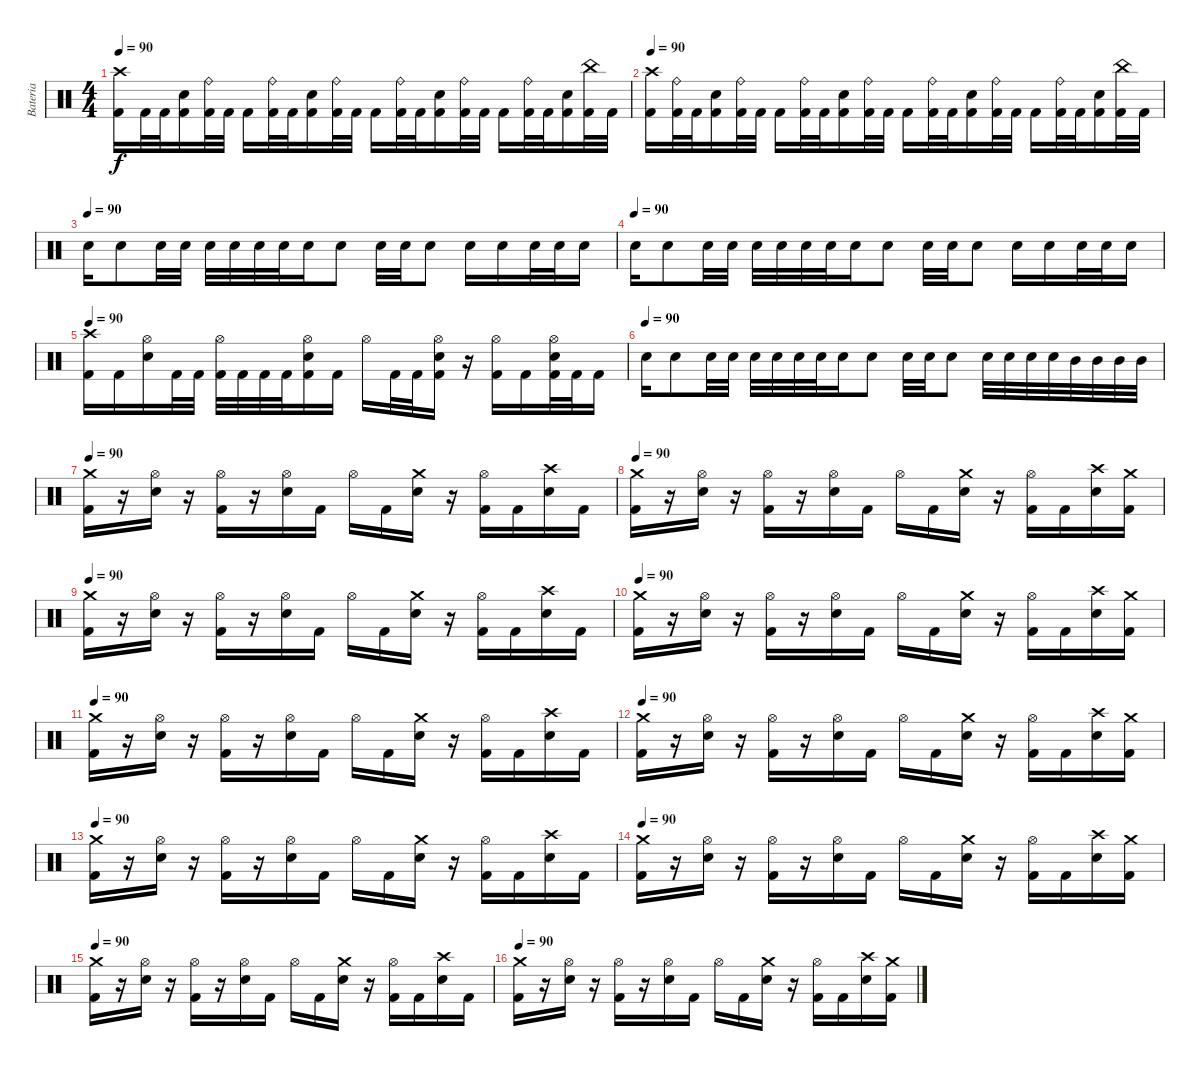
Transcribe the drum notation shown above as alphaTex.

\track ("Bateria" "Bateria") {instrument percussion}
\staff {score}
\articulation defaults
\ts (4 4)
\tempo 90
\clef neutral
\ks c
("Crash high (hit)" "Kick (hit) 2").16{dy f} "Kick (hit) 2".32 "Kick (hit) 2".32 ("Snare (hit) 2" "Kick (hit) 2").16 ("Ride (bell)" "Kick (hit) 2").32 "Kick (hit) 2".32 "Kick (hit) 2".16 ("Ride (bell)" "Kick (hit) 2").32 "Kick (hit) 2".32 ("Snare (hit) 2" "Kick (hit) 2").16 ("Ride (bell)" "Kick (hit) 2").32 "Kick (hit) 2".32 "Kick (hit) 2".16 ("Ride (bell)" "Kick (hit) 2").32 "Kick (hit) 2".32 ("Snare (hit) 2" "Kick (hit) 2").16 ("Ride (bell)" "Kick (hit) 2").32 "Kick (hit) 2".32 "Kick (hit) 2".16 ("Ride (bell)" "Kick (hit) 2").32 "Kick (hit) 2".32 ("Snare (hit) 2" "Kick (hit) 2").16 ("China (hit)" "Kick (hit) 2").32 "Kick (hit) 2".32 |
\tempo 90
("Crash high (hit)" "Kick (hit) 2").16 ("Ride (bell)" "Kick (hit) 2").32 "Kick (hit) 2".32 ("Snare (hit) 2" "Kick (hit) 2").16 ("Ride (bell)" "Kick (hit) 2").32 "Kick (hit) 2".32 "Kick (hit) 2".16 ("Ride (bell)" "Kick (hit) 2").32 "Kick (hit) 2".32 ("Snare (hit) 2" "Kick (hit) 2").16 ("Ride (bell)" "Kick (hit) 2").32 "Kick (hit) 2".32 "Kick (hit) 2".16 ("Ride (bell)" "Kick (hit) 2").32 "Kick (hit) 2".32 ("Snare (hit) 2" "Kick (hit) 2").16 ("Ride (bell)" "Kick (hit) 2").32 "Kick (hit) 2".32 "Kick (hit) 2".16 ("Ride (bell)" "Kick (hit) 2").32 "Kick (hit) 2".32 ("Snare (hit) 2" "Kick (hit) 2").16 ("China (hit)" "Kick (hit) 2").32 "Kick (hit) 2".32 |
\tempo (90)
"Snare (hit) 2".16 "Snare (hit) 2".8 "Snare (hit) 2".32 "Snare (hit) 2".32 "Snare (hit) 2".32 "Snare (hit) 2".32 "Snare (hit) 2".32 "Snare (hit) 2".32 "Snare (hit) 2".16 "Snare (hit) 2".8 "Snare (hit) 2".32 "Snare (hit) 2".32 "Snare (hit) 2".8 "Snare (hit) 2".16 "Snare (hit) 2".16 "Snare (hit) 2".32 "Snare (hit) 2".32 "Snare (hit) 2".16 |
\tempo (90)
"Snare (hit) 2".16 "Snare (hit) 2".8 "Snare (hit) 2".32 "Snare (hit) 2".32 "Snare (hit) 2".32 "Snare (hit) 2".32 "Snare (hit) 2".32 "Snare (hit) 2".32 "Snare (hit) 2".16 "Snare (hit) 2".8 "Snare (hit) 2".32 "Snare (hit) 2".32 "Snare (hit) 2".8 "Snare (hit) 2".16 "Snare (hit) 2".16 "Snare (hit) 2".32 "Snare (hit) 2".32 "Snare (hit) 2".16 |
\tempo 90
("Crash high (hit)" "Kick (hit) 2").16 "Kick (hit) 2".16 ("Hi-Hat (open)" "Snare (hit) 2").16 "Kick (hit) 2".32 "Kick (hit) 2".32 ("Hi-Hat (open)" "Kick (hit) 2").32 "Kick (hit) 2".32 "Kick (hit) 2".32 "Kick (hit) 2".32 ("Hi-Hat (open)" "Snare (hit) 2" "Kick (hit) 2").16 "Kick (hit) 2".16 "Hi-Hat (open)".16 "Kick (hit) 2".32 "Kick (hit) 2".32 ("Hi-Hat (open)" "Snare (hit) 2" "Kick (hit) 2").16 r.16 ("Hi-Hat (open)" "Kick (hit) 2").16 "Kick (hit) 2".16 ("Hi-Hat (open)" "Snare (hit) 2" "Kick (hit) 2").32 "Kick (hit) 2".32 "Kick (hit) 2".16 |
\tempo (90)
"Snare (hit) 2".16 "Snare (hit) 2".8 "Snare (hit) 2".32 "Snare (hit) 2".32 "Snare (hit) 2".32 "Snare (hit) 2".32 "Snare (hit) 2".32 "Snare (hit) 2".32 "Snare (hit) 2".16 "Snare (hit) 2".8 "Snare (hit) 2".32 "Snare (hit) 2".32 "Snare (hit) 2".8 "Snare (hit) 2".32 "Snare (hit) 2".32 "Snare (hit) 2".32 "Snare (hit) 2".32 "Mid Tom (hit)".32 "Mid Tom (hit)".32 "Mid Tom (hit)".32 "Mid Tom (hit)".32 |
\tempo 90
("Crash medium (hit)" "Kick (hit) 2").16 r.16 ("Hi-Hat (open)" "Snare (hit) 2").16 r.16 ("Hi-Hat (open)" "Kick (hit) 2").16 r.16 ("Hi-Hat (open)" "Snare (hit) 2").16 "Kick (hit) 2".16 "Hi-Hat (open)".16 "Kick (hit) 2".16 ("Crash medium (hit)" "Snare (hit) 2").16 r.16 ("Hi-Hat (open)" "Kick (hit) 2").16 "Kick (hit) 2".16 ("Crash high (hit)" "Snare (hit) 2").16 "Kick (hit) 2".16 |
\tempo 90
("Crash medium (hit)" "Kick (hit) 2").16 r.16 ("Hi-Hat (open)" "Snare (hit) 2").16 r.16 ("Hi-Hat (open)" "Kick (hit) 2").16 r.16 ("Hi-Hat (open)" "Snare (hit) 2").16 "Kick (hit) 2".16 "Hi-Hat (open)".16 "Kick (hit) 2".16 ("Crash medium (hit)" "Snare (hit) 2").16 r.16 ("Hi-Hat (open)" "Kick (hit) 2").16 "Kick (hit) 2".16 ("Crash high (hit)" "Snare (hit) 2").16 ("Crash medium (hit)" "Kick (hit) 2").16 |
\tempo 90
("Crash medium (hit)" "Kick (hit) 2").16 r.16 ("Hi-Hat (open)" "Snare (hit) 2").16 r.16 ("Hi-Hat (open)" "Kick (hit) 2").16 r.16 ("Hi-Hat (open)" "Snare (hit) 2").16 "Kick (hit) 2".16 "Hi-Hat (open)".16 "Kick (hit) 2".16 ("Crash medium (hit)" "Snare (hit) 2").16 r.16 ("Hi-Hat (open)" "Kick (hit) 2").16 "Kick (hit) 2".16 ("Crash high (hit)" "Snare (hit) 2").16 "Kick (hit) 2".16 |
\tempo 90
("Crash medium (hit)" "Kick (hit) 2").16 r.16 ("Hi-Hat (open)" "Snare (hit) 2").16 r.16 ("Hi-Hat (open)" "Kick (hit) 2").16 r.16 ("Hi-Hat (open)" "Snare (hit) 2").16 "Kick (hit) 2".16 "Hi-Hat (open)".16 "Kick (hit) 2".16 ("Crash medium (hit)" "Snare (hit) 2").16 r.16 ("Hi-Hat (open)" "Kick (hit) 2").16 "Kick (hit) 2".16 ("Crash high (hit)" "Snare (hit) 2").16 ("Crash medium (hit)" "Kick (hit) 2").16 |
\tempo 90
("Crash medium (hit)" "Kick (hit) 2").16 r.16 ("Hi-Hat (open)" "Snare (hit) 2").16 r.16 ("Hi-Hat (open)" "Kick (hit) 2").16 r.16 ("Hi-Hat (open)" "Snare (hit) 2").16 "Kick (hit) 2".16 "Hi-Hat (open)".16 "Kick (hit) 2".16 ("Crash medium (hit)" "Snare (hit) 2").16 r.16 ("Hi-Hat (open)" "Kick (hit) 2").16 "Kick (hit) 2".16 ("Crash high (hit)" "Snare (hit) 2").16 "Kick (hit) 2".16 |
\tempo 90
("Crash medium (hit)" "Kick (hit) 2").16 r.16 ("Hi-Hat (open)" "Snare (hit) 2").16 r.16 ("Hi-Hat (open)" "Kick (hit) 2").16 r.16 ("Hi-Hat (open)" "Snare (hit) 2").16 "Kick (hit) 2".16 "Hi-Hat (open)".16 "Kick (hit) 2".16 ("Crash medium (hit)" "Snare (hit) 2").16 r.16 ("Hi-Hat (open)" "Kick (hit) 2").16 "Kick (hit) 2".16 ("Crash high (hit)" "Snare (hit) 2").16 ("Crash medium (hit)" "Kick (hit) 2").16 |
\tempo 90
("Crash medium (hit)" "Kick (hit) 2").16 r.16 ("Hi-Hat (open)" "Snare (hit) 2").16 r.16 ("Hi-Hat (open)" "Kick (hit) 2").16 r.16 ("Hi-Hat (open)" "Snare (hit) 2").16 "Kick (hit) 2".16 "Hi-Hat (open)".16 "Kick (hit) 2".16 ("Crash medium (hit)" "Snare (hit) 2").16 r.16 ("Hi-Hat (open)" "Kick (hit) 2").16 "Kick (hit) 2".16 ("Crash high (hit)" "Snare (hit) 2").16 "Kick (hit) 2".16 |
\tempo 90
("Crash medium (hit)" "Kick (hit) 2").16 r.16 ("Hi-Hat (open)" "Snare (hit) 2").16 r.16 ("Hi-Hat (open)" "Kick (hit) 2").16 r.16 ("Hi-Hat (open)" "Snare (hit) 2").16 "Kick (hit) 2".16 "Hi-Hat (open)".16 "Kick (hit) 2".16 ("Crash medium (hit)" "Snare (hit) 2").16 r.16 ("Hi-Hat (open)" "Kick (hit) 2").16 "Kick (hit) 2".16 ("Crash high (hit)" "Snare (hit) 2").16 ("Crash medium (hit)" "Kick (hit) 2").16 |
\tempo 90
("Crash medium (hit)" "Kick (hit) 2").16 r.16 ("Hi-Hat (open)" "Snare (hit) 2").16 r.16 ("Hi-Hat (open)" "Kick (hit) 2").16 r.16 ("Hi-Hat (open)" "Snare (hit) 2").16 "Kick (hit) 2".16 "Hi-Hat (open)".16 "Kick (hit) 2".16 ("Crash medium (hit)" "Snare (hit) 2").16 r.16 ("Hi-Hat (open)" "Kick (hit) 2").16 "Kick (hit) 2".16 ("Crash high (hit)" "Snare (hit) 2").16 "Kick (hit) 2".16 |
\tempo 90
("Crash medium (hit)" "Kick (hit) 2").16 r.16 ("Hi-Hat (open)" "Snare (hit) 2").16 r.16 ("Hi-Hat (open)" "Kick (hit) 2").16 r.16 ("Hi-Hat (open)" "Snare (hit) 2").16 "Kick (hit) 2".16 "Hi-Hat (open)".16 "Kick (hit) 2".16 ("Crash medium (hit)" "Snare (hit) 2").16 r.16 ("Hi-Hat (open)" "Kick (hit) 2").16 "Kick (hit) 2".16 ("Crash high (hit)" "Snare (hit) 2").16 ("Crash medium (hit)" "Kick (hit) 2").16
